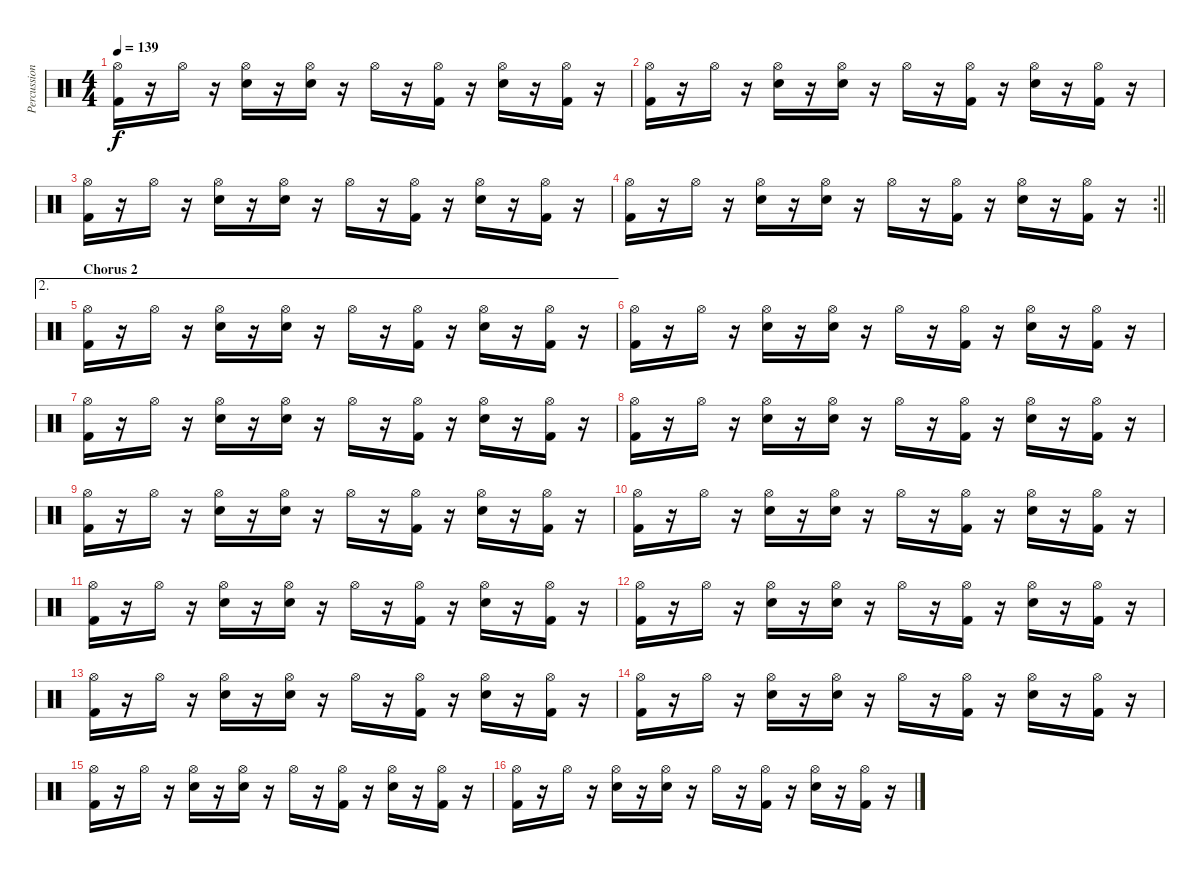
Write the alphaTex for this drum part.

\track ("Percussion" "Percussion") {instrument percussion}
\staff {score}
\articulation defaults
\ts (4 4)
\tempo 139
\clef neutral
\ks c
("Hi-Hat (open)" "Kick (hit) 2").16{dy f} r.16 "Hi-Hat (open)".16 r.16 ("Hi-Hat (open)" "Snare (hit) 2").16 r.16 ("Hi-Hat (open)" "Snare (hit) 2").16 r.16 "Hi-Hat (open)".16 r.16 ("Hi-Hat (open)" "Kick (hit) 2").16 r.16 ("Hi-Hat (open)" "Snare (hit) 2").16 r.16 ("Hi-Hat (open)" "Kick (hit) 2").16 r.16 |
("Hi-Hat (open)" "Kick (hit) 2").16 r.16 "Hi-Hat (open)".16 r.16 ("Hi-Hat (open)" "Snare (hit) 2").16 r.16 ("Hi-Hat (open)" "Snare (hit) 2").16 r.16 "Hi-Hat (open)".16 r.16 ("Hi-Hat (open)" "Kick (hit) 2").16 r.16 ("Hi-Hat (open)" "Snare (hit) 2").16 r.16 ("Hi-Hat (open)" "Kick (hit) 2").16 r.16 |
("Hi-Hat (open)" "Kick (hit) 2").16 r.16 "Hi-Hat (open)".16 r.16 ("Hi-Hat (open)" "Snare (hit) 2").16 r.16 ("Hi-Hat (open)" "Snare (hit) 2").16 r.16 "Hi-Hat (open)".16 r.16 ("Hi-Hat (open)" "Kick (hit) 2").16 r.16 ("Hi-Hat (open)" "Snare (hit) 2").16 r.16 ("Hi-Hat (open)" "Kick (hit) 2").16 r.16 |
\rc 2
\barLineRight lightlight
("Hi-Hat (open)" "Kick (hit) 2").16 r.16 "Hi-Hat (open)".16 r.16 ("Hi-Hat (open)" "Snare (hit) 2").16 r.16 ("Hi-Hat (open)" "Snare (hit) 2").16 r.16 "Hi-Hat (open)".16 r.16 ("Hi-Hat (open)" "Kick (hit) 2").16 r.16 ("Hi-Hat (open)" "Snare (hit) 2").16 r.16 ("Hi-Hat (open)" "Kick (hit) 2").16 r.16 |
\ae 2
\section ("" "Chorus 2")
("Hi-Hat (open)" "Kick (hit) 2").16 r.16 "Hi-Hat (open)".16 r.16 ("Hi-Hat (open)" "Snare (hit) 2").16 r.16 ("Hi-Hat (open)" "Snare (hit) 2").16 r.16 "Hi-Hat (open)".16 r.16 ("Hi-Hat (open)" "Kick (hit) 2").16 r.16 ("Hi-Hat (open)" "Snare (hit) 2").16 r.16 ("Hi-Hat (open)" "Kick (hit) 2").16 r.16 |
("Hi-Hat (open)" "Kick (hit) 2").16 r.16 "Hi-Hat (open)".16 r.16 ("Hi-Hat (open)" "Snare (hit) 2").16 r.16 ("Hi-Hat (open)" "Snare (hit) 2").16 r.16 "Hi-Hat (open)".16 r.16 ("Hi-Hat (open)" "Kick (hit) 2").16 r.16 ("Hi-Hat (open)" "Snare (hit) 2").16 r.16 ("Hi-Hat (open)" "Kick (hit) 2").16 r.16 |
("Hi-Hat (open)" "Kick (hit) 2").16 r.16 "Hi-Hat (open)".16 r.16 ("Hi-Hat (open)" "Snare (hit) 2").16 r.16 ("Hi-Hat (open)" "Snare (hit) 2").16 r.16 "Hi-Hat (open)".16 r.16 ("Hi-Hat (open)" "Kick (hit) 2").16 r.16 ("Hi-Hat (open)" "Snare (hit) 2").16 r.16 ("Hi-Hat (open)" "Kick (hit) 2").16 r.16 |
("Hi-Hat (open)" "Kick (hit) 2").16 r.16 "Hi-Hat (open)".16 r.16 ("Hi-Hat (open)" "Snare (hit) 2").16 r.16 ("Hi-Hat (open)" "Snare (hit) 2").16 r.16 "Hi-Hat (open)".16 r.16 ("Hi-Hat (open)" "Kick (hit) 2").16 r.16 ("Hi-Hat (open)" "Snare (hit) 2").16 r.16 ("Hi-Hat (open)" "Kick (hit) 2").16 r.16 |
("Hi-Hat (open)" "Kick (hit) 2").16 r.16 "Hi-Hat (open)".16 r.16 ("Hi-Hat (open)" "Snare (hit) 2").16 r.16 ("Hi-Hat (open)" "Snare (hit) 2").16 r.16 "Hi-Hat (open)".16 r.16 ("Hi-Hat (open)" "Kick (hit) 2").16 r.16 ("Hi-Hat (open)" "Snare (hit) 2").16 r.16 ("Hi-Hat (open)" "Kick (hit) 2").16 r.16 |
("Hi-Hat (open)" "Kick (hit) 2").16 r.16 "Hi-Hat (open)".16 r.16 ("Hi-Hat (open)" "Snare (hit) 2").16 r.16 ("Hi-Hat (open)" "Snare (hit) 2").16 r.16 "Hi-Hat (open)".16 r.16 ("Hi-Hat (open)" "Kick (hit) 2").16 r.16 ("Hi-Hat (open)" "Snare (hit) 2").16 r.16 ("Hi-Hat (open)" "Kick (hit) 2").16 r.16 |
("Hi-Hat (open)" "Kick (hit) 2").16 r.16 "Hi-Hat (open)".16 r.16 ("Hi-Hat (open)" "Snare (hit) 2").16 r.16 ("Hi-Hat (open)" "Snare (hit) 2").16 r.16 "Hi-Hat (open)".16 r.16 ("Hi-Hat (open)" "Kick (hit) 2").16 r.16 ("Hi-Hat (open)" "Snare (hit) 2").16 r.16 ("Hi-Hat (open)" "Kick (hit) 2").16 r.16 |
("Hi-Hat (open)" "Kick (hit) 2").16 r.16 "Hi-Hat (open)".16 r.16 ("Hi-Hat (open)" "Snare (hit) 2").16 r.16 ("Hi-Hat (open)" "Snare (hit) 2").16 r.16 "Hi-Hat (open)".16 r.16 ("Hi-Hat (open)" "Kick (hit) 2").16 r.16 ("Hi-Hat (open)" "Snare (hit) 2").16 r.16 ("Hi-Hat (open)" "Kick (hit) 2").16 r.16 |
("Hi-Hat (open)" "Kick (hit) 2").16 r.16 "Hi-Hat (open)".16 r.16 ("Hi-Hat (open)" "Snare (hit) 2").16 r.16 ("Hi-Hat (open)" "Snare (hit) 2").16 r.16 "Hi-Hat (open)".16 r.16 ("Hi-Hat (open)" "Kick (hit) 2").16 r.16 ("Hi-Hat (open)" "Snare (hit) 2").16 r.16 ("Hi-Hat (open)" "Kick (hit) 2").16 r.16 |
("Hi-Hat (open)" "Kick (hit) 2").16 r.16 "Hi-Hat (open)".16 r.16 ("Hi-Hat (open)" "Snare (hit) 2").16 r.16 ("Hi-Hat (open)" "Snare (hit) 2").16 r.16 "Hi-Hat (open)".16 r.16 ("Hi-Hat (open)" "Kick (hit) 2").16 r.16 ("Hi-Hat (open)" "Snare (hit) 2").16 r.16 ("Hi-Hat (open)" "Kick (hit) 2").16 r.16 |
("Hi-Hat (open)" "Kick (hit) 2").16 r.16 "Hi-Hat (open)".16 r.16 ("Hi-Hat (open)" "Snare (hit) 2").16 r.16 ("Hi-Hat (open)" "Snare (hit) 2").16 r.16 "Hi-Hat (open)".16 r.16 ("Hi-Hat (open)" "Kick (hit) 2").16 r.16 ("Hi-Hat (open)" "Snare (hit) 2").16 r.16 ("Hi-Hat (open)" "Kick (hit) 2").16 r.16 |
("Hi-Hat (open)" "Kick (hit) 2").16 r.16 "Hi-Hat (open)".16 r.16 ("Hi-Hat (open)" "Snare (hit) 2").16 r.16 ("Hi-Hat (open)" "Snare (hit) 2").16 r.16 "Hi-Hat (open)".16 r.16 ("Hi-Hat (open)" "Kick (hit) 2").16 r.16 ("Hi-Hat (open)" "Snare (hit) 2").16 r.16 ("Hi-Hat (open)" "Kick (hit) 2").16 r.16
